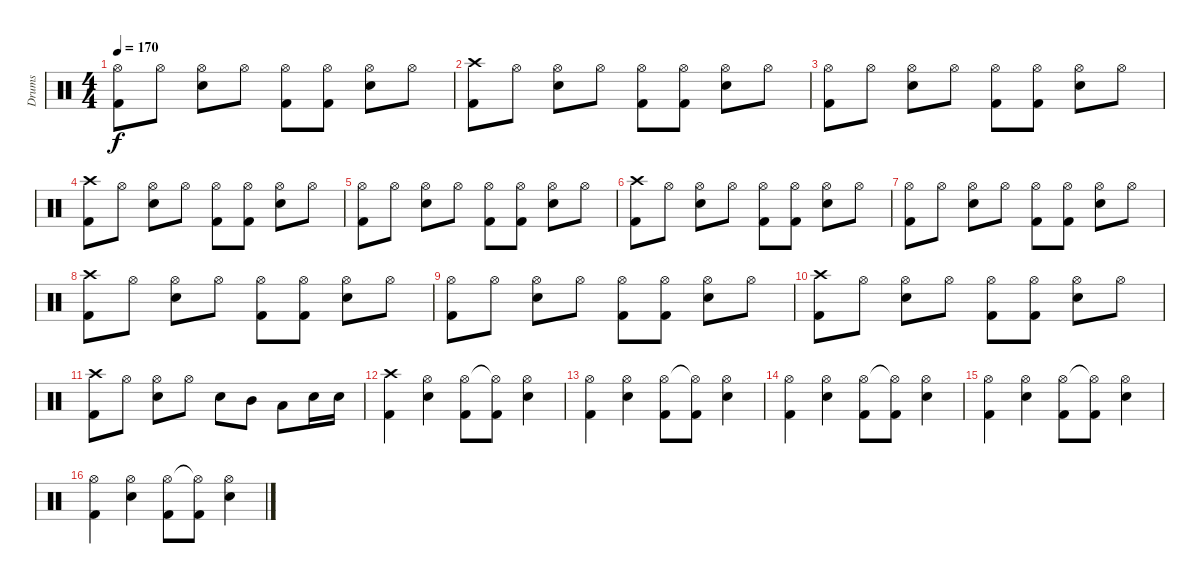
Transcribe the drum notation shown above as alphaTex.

\track ("Drums" "Drums") {instrument percussion}
\staff {score}
\articulation defaults
\ts (4 4)
\tempo 170
\clef neutral
\ks c
("Hi-Hat (open)" "Kick (hit) 2").8{dy f} "Hi-Hat (open)".8 ("Hi-Hat (open)" "Snare (hit) 2").8 "Hi-Hat (open)".8 ("Hi-Hat (open)" "Kick (hit) 2").8 ("Hi-Hat (open)" "Kick (hit) 2").8 ("Hi-Hat (open)" "Snare (hit) 2").8 "Hi-Hat (open)".8 |
("Crash high (hit)" "Kick (hit) 2").8 "Hi-Hat (open)".8 ("Hi-Hat (open)" "Snare (hit) 2").8 "Hi-Hat (open)".8 ("Hi-Hat (open)" "Kick (hit) 2").8 ("Hi-Hat (open)" "Kick (hit) 2").8 ("Hi-Hat (open)" "Snare (hit) 2").8 "Hi-Hat (open)".8 |
("Hi-Hat (open)" "Kick (hit) 2").8 "Hi-Hat (open)".8 ("Hi-Hat (open)" "Snare (hit) 2").8 "Hi-Hat (open)".8 ("Hi-Hat (open)" "Kick (hit) 2").8 ("Hi-Hat (open)" "Kick (hit) 2").8 ("Hi-Hat (open)" "Snare (hit) 2").8 "Hi-Hat (open)".8 |
("Crash high (hit)" "Kick (hit) 2").8 "Hi-Hat (open)".8 ("Hi-Hat (open)" "Snare (hit) 2").8 "Hi-Hat (open)".8 ("Hi-Hat (open)" "Kick (hit) 2").8 ("Hi-Hat (open)" "Kick (hit) 2").8 ("Hi-Hat (open)" "Snare (hit) 2").8 "Hi-Hat (open)".8 |
("Hi-Hat (open)" "Kick (hit) 2").8 "Hi-Hat (open)".8 ("Hi-Hat (open)" "Snare (hit) 2").8 "Hi-Hat (open)".8 ("Hi-Hat (open)" "Kick (hit) 2").8 ("Hi-Hat (open)" "Kick (hit) 2").8 ("Hi-Hat (open)" "Snare (hit) 2").8 "Hi-Hat (open)".8 |
("Crash high (hit)" "Kick (hit) 2").8 "Hi-Hat (open)".8 ("Hi-Hat (open)" "Snare (hit) 2").8 "Hi-Hat (open)".8 ("Hi-Hat (open)" "Kick (hit) 2").8 ("Hi-Hat (open)" "Kick (hit) 2").8 ("Hi-Hat (open)" "Snare (hit) 2").8 "Hi-Hat (open)".8 |
("Hi-Hat (open)" "Kick (hit) 2").8 "Hi-Hat (open)".8 ("Hi-Hat (open)" "Snare (hit) 2").8 "Hi-Hat (open)".8 ("Hi-Hat (open)" "Kick (hit) 2").8 ("Hi-Hat (open)" "Kick (hit) 2").8 ("Hi-Hat (open)" "Snare (hit) 2").8 "Hi-Hat (open)".8 |
("Crash high (hit)" "Kick (hit) 2").8 "Hi-Hat (open)".8 ("Hi-Hat (open)" "Snare (hit) 2").8 "Hi-Hat (open)".8 ("Hi-Hat (open)" "Kick (hit) 2").8 ("Hi-Hat (open)" "Kick (hit) 2").8 ("Hi-Hat (open)" "Snare (hit) 2").8 "Hi-Hat (open)".8 |
("Hi-Hat (open)" "Kick (hit) 2").8 "Hi-Hat (open)".8 ("Hi-Hat (open)" "Snare (hit) 2").8 "Hi-Hat (open)".8 ("Hi-Hat (open)" "Kick (hit) 2").8 ("Hi-Hat (open)" "Kick (hit) 2").8 ("Hi-Hat (open)" "Snare (hit) 2").8 "Hi-Hat (open)".8 |
("Crash high (hit)" "Kick (hit) 2").8 "Hi-Hat (open)".8 ("Hi-Hat (open)" "Snare (hit) 2").8 "Hi-Hat (open)".8 ("Hi-Hat (open)" "Kick (hit) 2").8 ("Hi-Hat (open)" "Kick (hit) 2").8 ("Hi-Hat (open)" "Snare (hit) 2").8 "Hi-Hat (open)".8 |
("Crash high (hit)" "Kick (hit) 2").8 "Hi-Hat (open)".8 ("Hi-Hat (open)" "Snare (hit) 2").8 "Hi-Hat (open)".8 "Snare (hit) 2".8 "Mid Tom (hit)".8 "Low Tom (hit)".8 "Snare (hit) 2".16 "Snare (hit) 2".16 |
("Crash high (hit)" "Kick (hit) 2").4 ("Hi-Hat (open)" "Snare (hit) 2").4 ("Hi-Hat (open)" "Kick (hit) 2").8 ("Hi-Hat (open)"{t} "Kick (hit) 2").8 ("Hi-Hat (open)" "Snare (hit) 2").4 |
("Hi-Hat (open)" "Kick (hit) 2").4 ("Hi-Hat (open)" "Snare (hit) 2").4 ("Hi-Hat (open)" "Kick (hit) 2").8 ("Hi-Hat (open)"{t} "Kick (hit) 2").8 ("Hi-Hat (open)" "Snare (hit) 2").4 |
("Hi-Hat (open)" "Kick (hit) 2").4 ("Hi-Hat (open)" "Snare (hit) 2").4 ("Hi-Hat (open)" "Kick (hit) 2").8 ("Hi-Hat (open)"{t} "Kick (hit) 2").8 ("Hi-Hat (open)" "Snare (hit) 2").4 |
("Hi-Hat (open)" "Kick (hit) 2").4 ("Hi-Hat (open)" "Snare (hit) 2").4 ("Hi-Hat (open)" "Kick (hit) 2").8 ("Hi-Hat (open)"{t} "Kick (hit) 2").8 ("Hi-Hat (open)" "Snare (hit) 2").4 |
("Hi-Hat (open)" "Kick (hit) 2").4 ("Hi-Hat (open)" "Snare (hit) 2").4 ("Hi-Hat (open)" "Kick (hit) 2").8 ("Hi-Hat (open)"{t} "Kick (hit) 2").8 ("Hi-Hat (open)" "Snare (hit) 2").4
